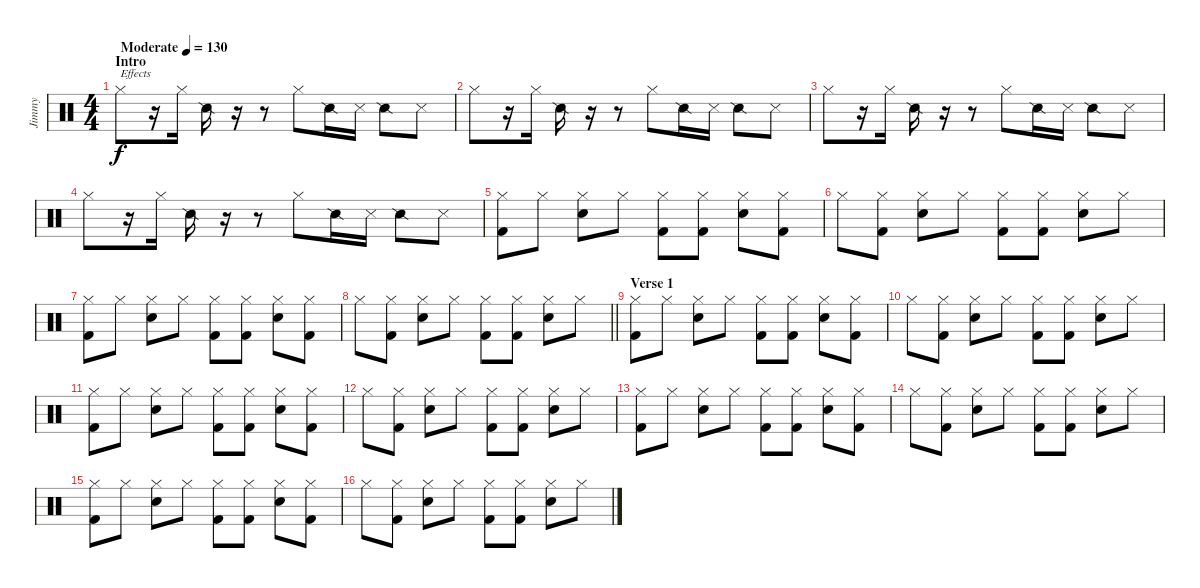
\track ("Jimmy" "Jimmy") {instrument percussion}
\staff {score}
\articulation defaults
\ts (4 4)
\section ("" "Intro")
\tempo (130 "Moderate")
\clef neutral
\ks c "Hi-Hat (closed)".8{txt "Effects" dy f volume 2}
r.16 "Hi-Hat (closed)".16{volume 13} "Snare (side stick) 2".16 r.16 r.8 "Hi-Hat (closed)".8 "Snare (side stick) 2".16 "Metronome (hit)".16 "Snare (side stick) 2".8 "Metronome (hit)".8 |
"Hi-Hat (closed)".8 r.16 "Hi-Hat (closed)".16 "Snare (side stick) 2".16 r.16 r.8 "Hi-Hat (closed)".8 "Snare (side stick) 2".16 "Metronome (hit)".16 "Snare (side stick) 2".8 "Metronome (hit)".8 |
"Hi-Hat (closed)".8 r.16 "Hi-Hat (closed)".16 "Snare (side stick) 2".16 r.16 r.8 "Hi-Hat (closed)".8 "Snare (side stick) 2".16 "Metronome (hit)".16 "Snare (side stick) 2".8 "Metronome (hit)".8 |
"Hi-Hat (closed)".8 r.16 "Hi-Hat (closed)".16 "Snare (side stick) 2".16 r.16 r.8 "Hi-Hat (closed)".8 "Snare (side stick) 2".16 "Metronome (hit)".16 "Snare (side stick) 2".8 "Metronome (hit)".8 |
("Hi-Hat (closed)" "Kick (hit) 2").8 "Hi-Hat (closed)".8 ("Hi-Hat (closed)" "Electric Snare (hit)").8 "Hi-Hat (closed)".8 ("Hi-Hat (closed)" "Kick (hit) 2").8 ("Hi-Hat (closed)" "Kick (hit) 2").8 ("Hi-Hat (closed)" "Electric Snare (hit)").8 ("Hi-Hat (closed)" "Kick (hit) 2").8 |
"Hi-Hat (closed)".8 ("Hi-Hat (closed)" "Kick (hit) 2").8 ("Hi-Hat (closed)" "Electric Snare (hit)").8 "Hi-Hat (closed)".8 ("Hi-Hat (closed)" "Kick (hit) 2").8 ("Hi-Hat (closed)" "Kick (hit) 2").8 ("Hi-Hat (closed)" "Electric Snare (hit)").8 "Hi-Hat (closed)".8 |
("Hi-Hat (closed)" "Kick (hit) 2").8 "Hi-Hat (closed)".8 ("Hi-Hat (closed)" "Electric Snare (hit)").8 "Hi-Hat (closed)".8 ("Hi-Hat (closed)" "Kick (hit) 2").8 ("Hi-Hat (closed)" "Kick (hit) 2").8 ("Hi-Hat (closed)" "Electric Snare (hit)").8 ("Hi-Hat (closed)" "Kick (hit) 2").8 |
\barLineRight lightlight "Hi-Hat (closed)".8
("Hi-Hat (closed)" "Kick (hit) 2").8 ("Hi-Hat (closed)" "Electric Snare (hit)").8 "Hi-Hat (closed)".8 ("Hi-Hat (closed)" "Kick (hit) 2").8 ("Hi-Hat (closed)" "Kick (hit) 2").8 ("Hi-Hat (closed)" "Electric Snare (hit)").8 "Hi-Hat (closed)".8 |
\section ("" "Verse 1")
("Hi-Hat (closed)" "Kick (hit) 2").8 "Hi-Hat (closed)".8 ("Hi-Hat (closed)" "Electric Snare (hit)").8 "Hi-Hat (closed)".8 ("Hi-Hat (closed)" "Kick (hit) 2").8 ("Hi-Hat (closed)" "Kick (hit) 2").8 ("Hi-Hat (closed)" "Electric Snare (hit)").8 ("Hi-Hat (closed)" "Kick (hit) 2").8 |
"Hi-Hat (closed)".8 ("Hi-Hat (closed)" "Kick (hit) 2").8 ("Hi-Hat (closed)" "Electric Snare (hit)").8 "Hi-Hat (closed)".8 ("Hi-Hat (closed)" "Kick (hit) 2").8 ("Hi-Hat (closed)" "Kick (hit) 2").8 ("Hi-Hat (closed)" "Electric Snare (hit)").8 "Hi-Hat (closed)".8 |
("Hi-Hat (closed)" "Kick (hit) 2").8 "Hi-Hat (closed)".8 ("Hi-Hat (closed)" "Electric Snare (hit)").8 "Hi-Hat (closed)".8 ("Hi-Hat (closed)" "Kick (hit) 2").8 ("Hi-Hat (closed)" "Kick (hit) 2").8 ("Hi-Hat (closed)" "Electric Snare (hit)").8 ("Hi-Hat (closed)" "Kick (hit) 2").8 |
"Hi-Hat (closed)".8 ("Hi-Hat (closed)" "Kick (hit) 2").8 ("Hi-Hat (closed)" "Electric Snare (hit)").8 "Hi-Hat (closed)".8 ("Hi-Hat (closed)" "Kick (hit) 2").8 ("Hi-Hat (closed)" "Kick (hit) 2").8 ("Hi-Hat (closed)" "Electric Snare (hit)").8 "Hi-Hat (closed)".8 |
("Hi-Hat (closed)" "Kick (hit) 2").8 "Hi-Hat (closed)".8 ("Hi-Hat (closed)" "Electric Snare (hit)").8 "Hi-Hat (closed)".8 ("Hi-Hat (closed)" "Kick (hit) 2").8 ("Hi-Hat (closed)" "Kick (hit) 2").8 ("Hi-Hat (closed)" "Electric Snare (hit)").8 ("Hi-Hat (closed)" "Kick (hit) 2").8 |
"Hi-Hat (closed)".8 ("Hi-Hat (closed)" "Kick (hit) 2").8 ("Hi-Hat (closed)" "Electric Snare (hit)").8 "Hi-Hat (closed)".8 ("Hi-Hat (closed)" "Kick (hit) 2").8 ("Hi-Hat (closed)" "Kick (hit) 2").8 ("Hi-Hat (closed)" "Electric Snare (hit)").8 "Hi-Hat (closed)".8 |
("Hi-Hat (closed)" "Kick (hit) 2").8 "Hi-Hat (closed)".8 ("Hi-Hat (closed)" "Electric Snare (hit)").8 "Hi-Hat (closed)".8 ("Hi-Hat (closed)" "Kick (hit) 2").8 ("Hi-Hat (closed)" "Kick (hit) 2").8 ("Hi-Hat (closed)" "Electric Snare (hit)").8 ("Hi-Hat (closed)" "Kick (hit) 2").8 |
"Hi-Hat (closed)".8 ("Hi-Hat (closed)" "Kick (hit) 2").8 ("Hi-Hat (closed)" "Electric Snare (hit)").8 "Hi-Hat (closed)".8 ("Hi-Hat (closed)" "Kick (hit) 2").8 ("Hi-Hat (closed)" "Kick (hit) 2").8 ("Hi-Hat (closed)" "Electric Snare (hit)").8 "Hi-Hat (closed)".8
